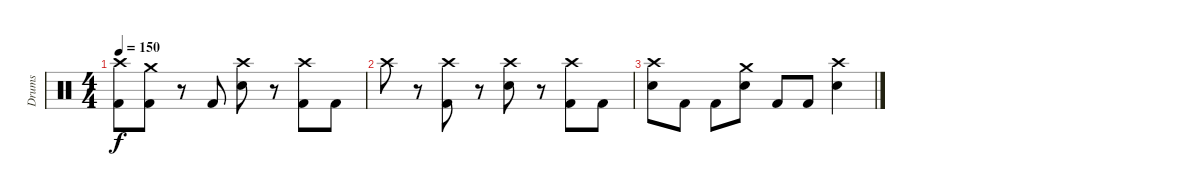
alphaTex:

\track ("Drums" "Drums") {instrument percussion}
\staff {score}
\articulation defaults
\ts (4 4)
\tempo 150
\clef neutral
\ks c
("Crash high (hit)" "Kick (hit) 2").8{dy f} ("Crash medium (hit)" "Kick (hit) 2").8 r.8 "Kick (hit) 2".8 ("Crash high (hit)" "Electric Snare (hit)").8 r.8 ("Crash high (hit)" "Kick (hit) 2").8 "Kick (hit) 2".8 |
"Crash high (hit)".8 r.8 ("Crash high (hit)" "Kick (hit) 2").8 r.8 ("Crash high (hit)" "Electric Snare (hit)").8 r.8 ("Crash high (hit)" "Kick (hit) 2").8 "Kick (hit) 2".8 |
("Crash high (hit)" "Electric Snare (hit)").8 "Kick (hit) 2".8 "Kick (hit) 2".8 ("Crash medium (hit)" "Electric Snare (hit)").8 "Kick (hit) 2".8 "Kick (hit) 2".8 ("Crash high (hit)" "Electric Snare (hit)").4
